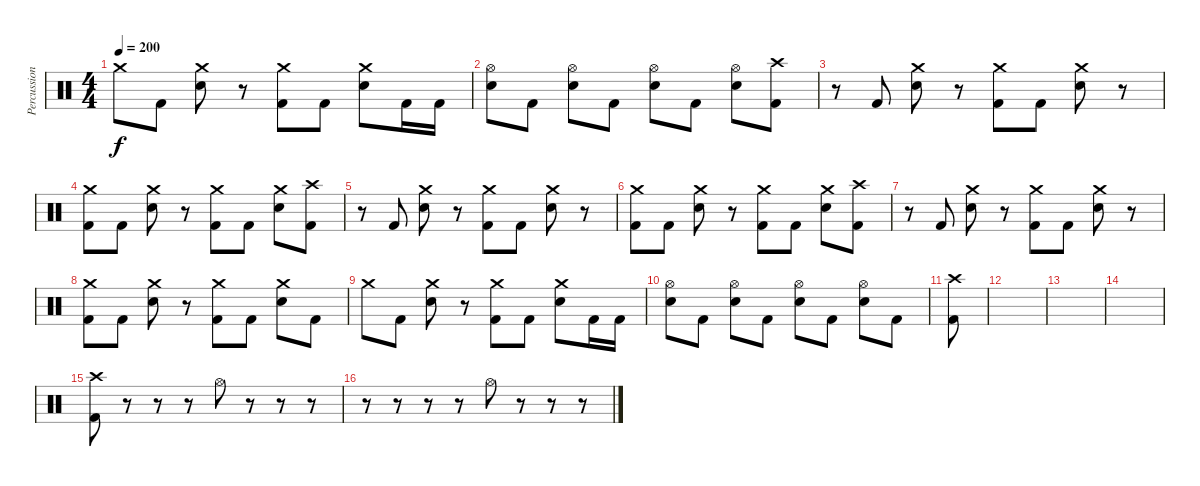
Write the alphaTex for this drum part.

\track ("Percussion" "Percussion") {instrument percussion}
\staff {score}
\articulation defaults
\ts (4 4)
\tempo 200
\clef neutral
\ks c "Crash medium (hit)".8{dy f} "Kick (hit) 2".8
("Crash medium (hit)" "Snare (hit) 2").8 r.8 ("Crash medium (hit)" "Kick (hit) 2").8 "Kick (hit) 2".8 ("Crash medium (hit)" "Snare (hit) 2").8 "Kick (hit) 2".16 "Kick (hit) 2".16 |
("Hi-Hat (open)" "Snare (hit) 2").8 "Kick (hit) 2".8 ("Hi-Hat (open)" "Snare (hit) 2").8 "Kick (hit) 2".8 ("Hi-Hat (open)" "Snare (hit) 2").8 "Kick (hit) 2".8 ("Hi-Hat (open)" "Snare (hit) 2").8 ("Crash high (hit)" "Kick (hit) 2").8 |
r.8 "Kick (hit) 2".8 ("Crash medium (hit)" "Snare (hit) 2").8 r.8 ("Crash medium (hit)" "Kick (hit) 2").8 "Kick (hit) 2".8 ("Crash medium (hit)" "Snare (hit) 2").8 r.8 |
("Crash medium (hit)" "Kick (hit) 2").8 "Kick (hit) 2".8 ("Crash medium (hit)" "Snare (hit) 2").8 r.8 ("Crash medium (hit)" "Kick (hit) 2").8 "Kick (hit) 2".8 ("Crash medium (hit)" "Snare (hit) 2").8 ("Crash high (hit)" "Kick (hit) 2").8 |
r.8 "Kick (hit) 2".8 ("Crash medium (hit)" "Snare (hit) 2").8 r.8 ("Crash medium (hit)" "Kick (hit) 2").8 "Kick (hit) 2".8 ("Crash medium (hit)" "Snare (hit) 2").8 r.8 |
("Crash medium (hit)" "Kick (hit) 2").8 "Kick (hit) 2".8 ("Crash medium (hit)" "Snare (hit) 2").8 r.8 ("Crash medium (hit)" "Kick (hit) 2").8 "Kick (hit) 2".8 ("Crash medium (hit)" "Snare (hit) 2").8 ("Crash high (hit)" "Kick (hit) 2").8 |
r.8 "Kick (hit) 2".8 ("Crash medium (hit)" "Snare (hit) 2").8 r.8 ("Crash medium (hit)" "Kick (hit) 2").8 "Kick (hit) 2".8 ("Crash medium (hit)" "Snare (hit) 2").8 r.8 |
("Crash medium (hit)" "Kick (hit) 2").8 "Kick (hit) 2".8 ("Crash medium (hit)" "Snare (hit) 2").8 r.8 ("Crash medium (hit)" "Kick (hit) 2").8 "Kick (hit) 2".8 ("Crash medium (hit)" "Snare (hit) 2").8 "Kick (hit) 2".8 |
"Crash medium (hit)".8 "Kick (hit) 2".8 ("Crash medium (hit)" "Snare (hit) 2").8 r.8 ("Crash medium (hit)" "Kick (hit) 2").8 "Kick (hit) 2".8 ("Crash medium (hit)" "Snare (hit) 2").8 "Kick (hit) 2".16 "Kick (hit) 2".16 |
("Hi-Hat (open)" "Snare (hit) 2").8 "Kick (hit) 2".8 ("Hi-Hat (open)" "Snare (hit) 2").8 "Kick (hit) 2".8 ("Hi-Hat (open)" "Snare (hit) 2").8 "Kick (hit) 2".8 ("Hi-Hat (open)" "Snare (hit) 2").8 "Kick (hit) 2".8 |
("Crash high (hit)" "Kick (hit) 2").8 |
|
|
|
("Crash high (hit)" "Kick (hit) 2").8 r.8 r.8 r.8 "Hi-Hat (open)".8 r.8 r.8 r.8 |
r.8 r.8 r.8 r.8 "Hi-Hat (open)".8 r.8 r.8 r.8
